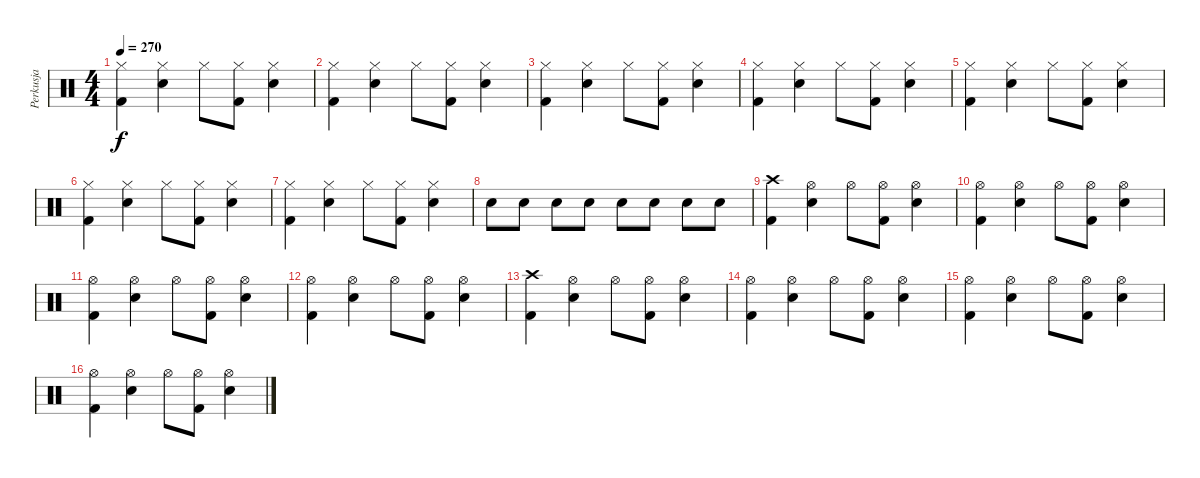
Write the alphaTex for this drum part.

\track ("Perkusja" "Perkusja") {instrument percussion}
\staff {score}
\articulation defaults
\ts (4 4)
\tempo 270
\clef neutral
\ks c
("Hi-Hat (closed)" "Kick (hit) 2").4{dy f} ("Hi-Hat (closed)" "Electric Snare (hit)").4 "Hi-Hat (closed)".8 ("Hi-Hat (closed)" "Kick (hit) 2").8 ("Hi-Hat (closed)" "Electric Snare (hit)").4 |
("Hi-Hat (closed)" "Kick (hit) 2").4 ("Hi-Hat (closed)" "Electric Snare (hit)").4 "Hi-Hat (closed)".8 ("Hi-Hat (closed)" "Kick (hit) 2").8 ("Hi-Hat (closed)" "Electric Snare (hit)").4 |
("Hi-Hat (closed)" "Kick (hit) 2").4 ("Hi-Hat (closed)" "Electric Snare (hit)").4 "Hi-Hat (closed)".8 ("Hi-Hat (closed)" "Kick (hit) 2").8 ("Hi-Hat (closed)" "Electric Snare (hit)").4 |
("Hi-Hat (closed)" "Kick (hit) 2").4 ("Hi-Hat (closed)" "Electric Snare (hit)").4 "Hi-Hat (closed)".8 ("Hi-Hat (closed)" "Kick (hit) 2").8 ("Hi-Hat (closed)" "Electric Snare (hit)").4 |
("Hi-Hat (closed)" "Kick (hit) 2").4 ("Hi-Hat (closed)" "Electric Snare (hit)").4 "Hi-Hat (closed)".8 ("Hi-Hat (closed)" "Kick (hit) 2").8 ("Hi-Hat (closed)" "Electric Snare (hit)").4 |
("Hi-Hat (closed)" "Kick (hit) 2").4 ("Hi-Hat (closed)" "Electric Snare (hit)").4 "Hi-Hat (closed)".8 ("Hi-Hat (closed)" "Kick (hit) 2").8 ("Hi-Hat (closed)" "Electric Snare (hit)").4 |
("Hi-Hat (closed)" "Kick (hit) 2").4 ("Hi-Hat (closed)" "Electric Snare (hit)").4 "Hi-Hat (closed)".8 ("Hi-Hat (closed)" "Kick (hit) 2").8 ("Hi-Hat (closed)" "Electric Snare (hit)").4 |
"Electric Snare (hit)".8 "Electric Snare (hit)".8 "Electric Snare (hit)".8 "Electric Snare (hit)".8 "Electric Snare (hit)".8 "Electric Snare (hit)".8 "Electric Snare (hit)".8 "Electric Snare (hit)".8 |
("Crash high (hit)" "Kick (hit) 2").4 ("Hi-Hat (open)" "Electric Snare (hit)").4 "Hi-Hat (open)".8 ("Hi-Hat (open)" "Kick (hit) 2").8 ("Hi-Hat (open)" "Electric Snare (hit)").4 |
("Hi-Hat (open)" "Kick (hit) 2").4 ("Hi-Hat (open)" "Electric Snare (hit)").4 "Hi-Hat (open)".8 ("Hi-Hat (open)" "Kick (hit) 2").8 ("Hi-Hat (open)" "Electric Snare (hit)").4 |
("Hi-Hat (open)" "Kick (hit) 2").4 ("Hi-Hat (open)" "Electric Snare (hit)").4 "Hi-Hat (open)".8 ("Hi-Hat (open)" "Kick (hit) 2").8 ("Hi-Hat (open)" "Electric Snare (hit)").4 |
("Hi-Hat (open)" "Kick (hit) 2").4 ("Hi-Hat (open)" "Electric Snare (hit)").4 "Hi-Hat (open)".8 ("Hi-Hat (open)" "Kick (hit) 2").8 ("Hi-Hat (open)" "Electric Snare (hit)").4 |
("Crash high (hit)" "Kick (hit) 2").4 ("Hi-Hat (open)" "Electric Snare (hit)").4 "Hi-Hat (open)".8 ("Hi-Hat (open)" "Kick (hit) 2").8 ("Hi-Hat (open)" "Electric Snare (hit)").4 |
("Hi-Hat (open)" "Kick (hit) 2").4 ("Hi-Hat (open)" "Electric Snare (hit)").4 "Hi-Hat (open)".8 ("Hi-Hat (open)" "Kick (hit) 2").8 ("Hi-Hat (open)" "Electric Snare (hit)").4 |
("Hi-Hat (open)" "Kick (hit) 2").4 ("Hi-Hat (open)" "Electric Snare (hit)").4 "Hi-Hat (open)".8 ("Hi-Hat (open)" "Kick (hit) 2").8 ("Hi-Hat (open)" "Electric Snare (hit)").4 |
("Hi-Hat (open)" "Kick (hit) 2").4 ("Hi-Hat (open)" "Electric Snare (hit)").4 "Hi-Hat (open)".8 ("Hi-Hat (open)" "Kick (hit) 2").8 ("Hi-Hat (open)" "Electric Snare (hit)").4
